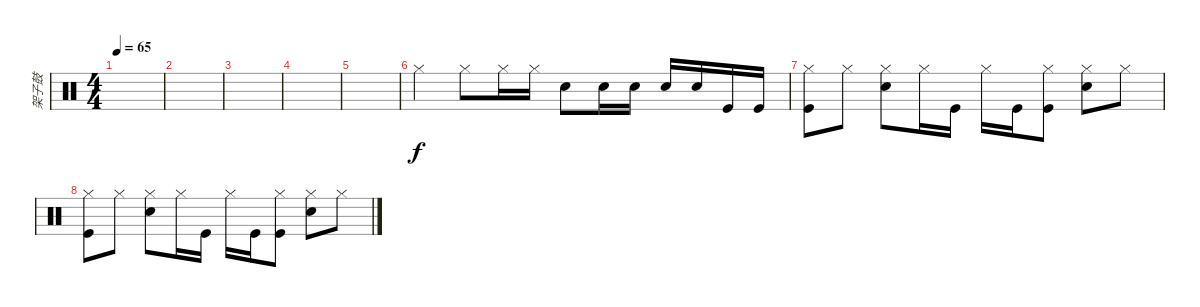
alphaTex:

\track ("架子鼓" "架子鼓") {instrument percussion}
\staff {score}
\articulation defaults
\ts (4 4)
\tempo 65
\clef neutral
\ks c
|
|
|
|
|
"Hi-Hat (closed)".4 "Hi-Hat (closed)".8 "Hi-Hat (closed)".16 "Hi-Hat (closed)".16 "Snare (hit) 2".8 "Snare (hit) 2".16 "Snare (hit) 2".16 "Snare (hit) 2".16 "Snare (hit) 2".16 "Kick (hit)".16 "Kick (hit)".16 |
("Kick (hit)" "Hi-Hat (closed)").8 "Hi-Hat (closed)".8 ("Snare (hit) 2" "Hi-Hat (closed)").8 "Hi-Hat (closed)".16 "Kick (hit)".16 "Hi-Hat (closed)".16 "Kick (hit)".16 ("Kick (hit)" "Hi-Hat (closed)").8 ("Snare (hit) 2" "Hi-Hat (closed)").8 "Hi-Hat (closed)".8 |
("Kick (hit)" "Hi-Hat (closed)").8 "Hi-Hat (closed)".8 ("Snare (hit) 2" "Hi-Hat (closed)").8 "Hi-Hat (closed)".16 "Kick (hit)".16 "Hi-Hat (closed)".16 "Kick (hit)".16 ("Kick (hit)" "Hi-Hat (closed)").8 ("Snare (hit) 2" "Hi-Hat (closed)").8 "Hi-Hat (closed)".8
